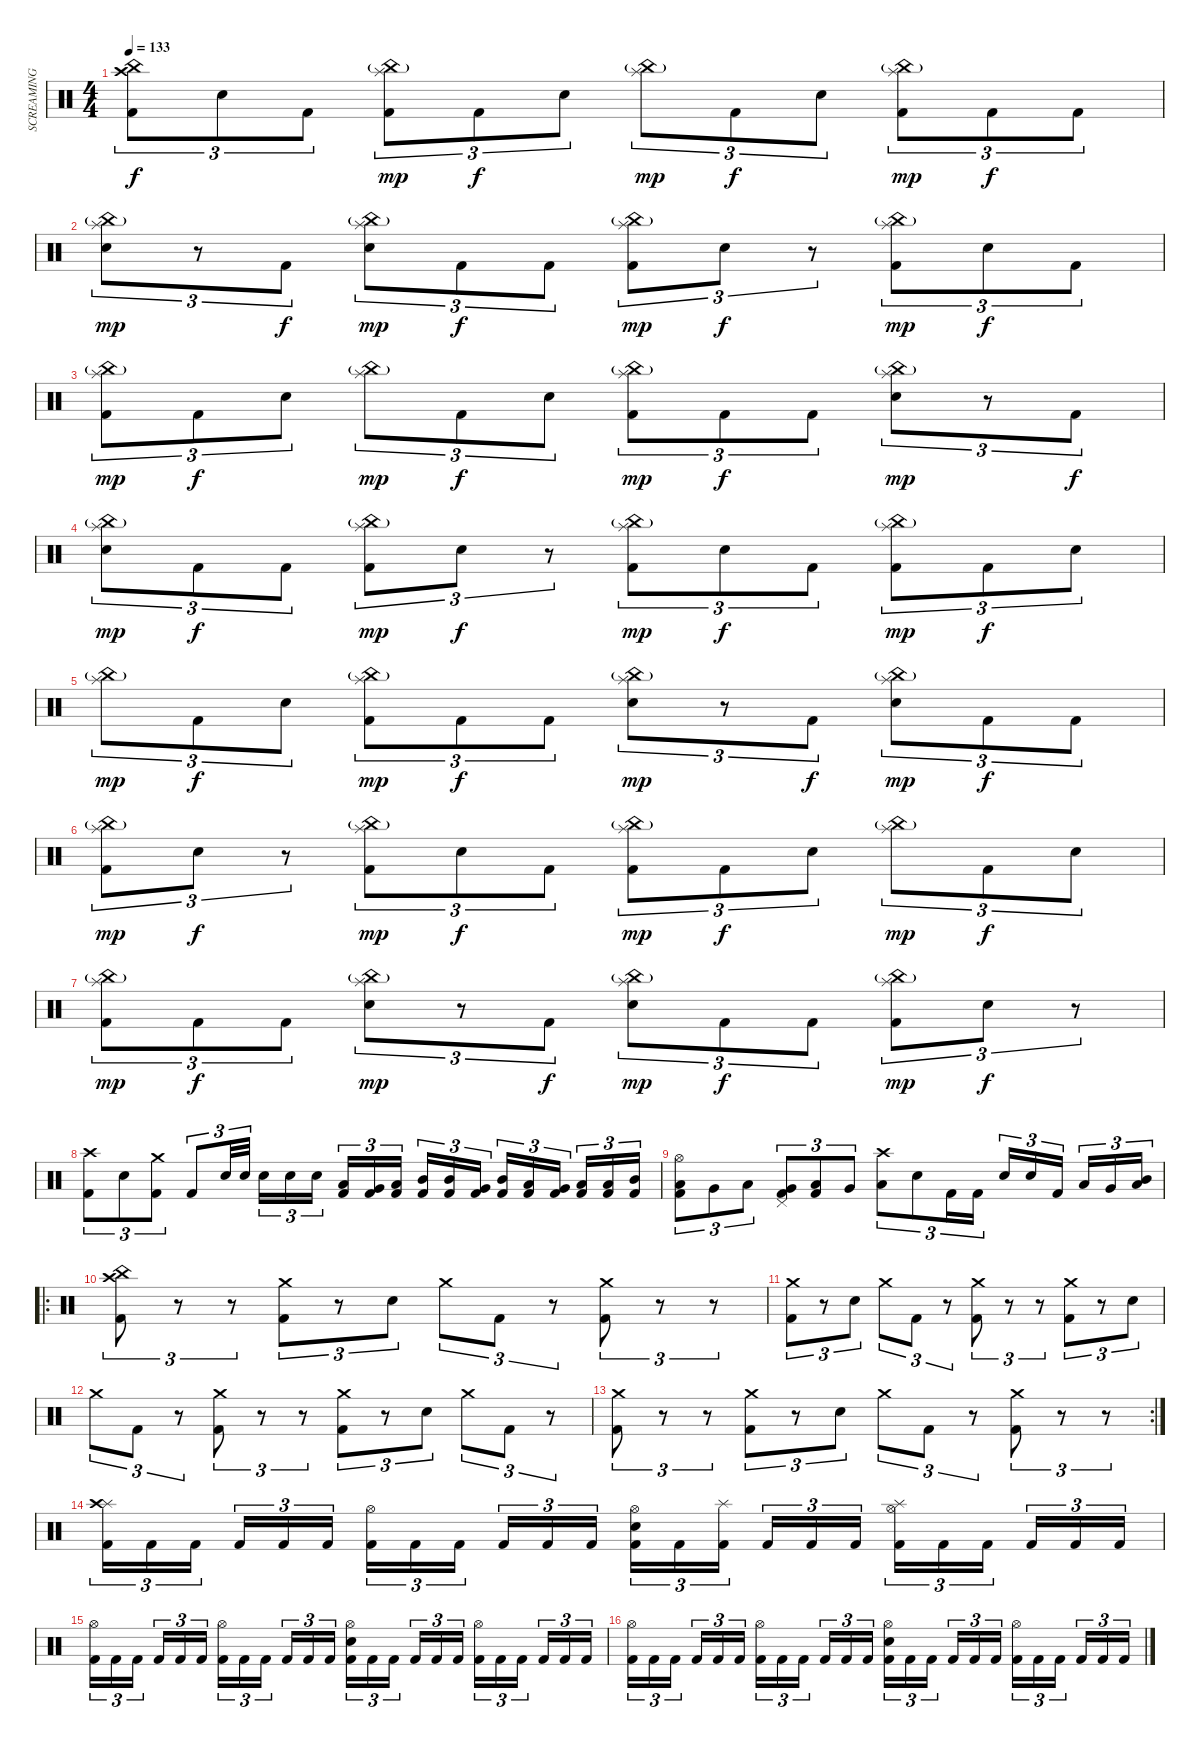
\track ("SCREAMING TOASTER OVEN" "SCREAMING ") {instrument percussion}
\staff {score}
\articulation defaults
\ts (4 4)
\tempo 133
\clef neutral
\ks c
("China (hit)" "Crash high (hit)" "Kick (hit) 2").8{tu (3 2) dy f} "Electric Snare (hit)".8{tu (3 2)} "Kick (hit) 2".8{tu (3 2)} ("China (hit)"{g} "Splash (hit)" "Kick (hit) 2").8{tu (3 2) dy mp} "Kick (hit) 2".8{tu (3 2) dy f} "Electric Snare (hit)".8{tu (3 2)} ("China (hit)"{g} "Splash (hit)").8{tu (3 2) dy mp} "Kick (hit) 2".8{tu (3 2) dy f} "Electric Snare (hit)".8{tu (3 2)} ("China (hit)"{g} "Splash (hit)" "Kick (hit) 2").8{tu (3 2) dy mp} "Kick (hit) 2".8{tu (3 2) dy f} "Kick (hit) 2".8{tu (3 2)} |
("China (hit)"{g} "Splash (hit)" "Electric Snare (hit)").8{tu (3 2) dy mp} r.8{tu (3 2)} "Kick (hit) 2".8{tu (3 2) dy f} ("China (hit)"{g} "Splash (hit)" "Electric Snare (hit)").8{tu (3 2) dy mp} "Kick (hit) 2".8{tu (3 2) dy f} "Kick (hit) 2".8{tu (3 2)} ("China (hit)"{g} "Splash (hit)" "Kick (hit) 2").8{tu (3 2) dy mp} "Electric Snare (hit)".8{tu (3 2) dy f} r.8{tu (3 2)} ("China (hit)"{g} "Splash (hit)" "Kick (hit) 2").8{tu (3 2) dy mp} "Electric Snare (hit)".8{tu (3 2) dy f} "Kick (hit) 2".8{tu (3 2)} |
("China (hit)"{g} "Splash (hit)" "Kick (hit) 2").8{tu (3 2) dy mp} "Kick (hit) 2".8{tu (3 2) dy f} "Electric Snare (hit)".8{tu (3 2)} ("China (hit)"{g} "Splash (hit)").8{tu (3 2) dy mp} "Kick (hit) 2".8{tu (3 2) dy f} "Electric Snare (hit)".8{tu (3 2)} ("China (hit)"{g} "Splash (hit)" "Kick (hit) 2").8{tu (3 2) dy mp} "Kick (hit) 2".8{tu (3 2) dy f} "Kick (hit) 2".8{tu (3 2)} ("China (hit)"{g} "Splash (hit)" "Electric Snare (hit)").8{tu (3 2) dy mp} r.8{tu (3 2)} "Kick (hit) 2".8{tu (3 2) dy f} |
("China (hit)"{g} "Splash (hit)" "Electric Snare (hit)").8{tu (3 2) dy mp} "Kick (hit) 2".8{tu (3 2) dy f} "Kick (hit) 2".8{tu (3 2)} ("China (hit)"{g} "Splash (hit)" "Kick (hit) 2").8{tu (3 2) dy mp} "Electric Snare (hit)".8{tu (3 2) dy f} r.8{tu (3 2)} ("China (hit)"{g} "Splash (hit)" "Kick (hit) 2").8{tu (3 2) dy mp} "Electric Snare (hit)".8{tu (3 2) dy f} "Kick (hit) 2".8{tu (3 2)} ("China (hit)"{g} "Splash (hit)" "Kick (hit) 2").8{tu (3 2) dy mp} "Kick (hit) 2".8{tu (3 2) dy f} "Electric Snare (hit)".8{tu (3 2)} |
("China (hit)"{g} "Splash (hit)").8{tu (3 2) dy mp} "Kick (hit) 2".8{tu (3 2) dy f} "Electric Snare (hit)".8{tu (3 2)} ("China (hit)"{g} "Splash (hit)" "Kick (hit) 2").8{tu (3 2) dy mp} "Kick (hit) 2".8{tu (3 2) dy f} "Kick (hit) 2".8{tu (3 2)} ("China (hit)"{g} "Splash (hit)" "Electric Snare (hit)").8{tu (3 2) dy mp} r.8{tu (3 2)} "Kick (hit) 2".8{tu (3 2) dy f} ("China (hit)"{g} "Splash (hit)" "Electric Snare (hit)").8{tu (3 2) dy mp} "Kick (hit) 2".8{tu (3 2) dy f} "Kick (hit) 2".8{tu (3 2)} |
("China (hit)"{g} "Splash (hit)" "Kick (hit) 2").8{tu (3 2) dy mp} "Electric Snare (hit)".8{tu (3 2) dy f} r.8{tu (3 2)} ("China (hit)"{g} "Splash (hit)" "Kick (hit) 2").8{tu (3 2) dy mp} "Electric Snare (hit)".8{tu (3 2) dy f} "Kick (hit) 2".8{tu (3 2)} ("China (hit)"{g} "Splash (hit)" "Kick (hit) 2").8{tu (3 2) dy mp} "Kick (hit) 2".8{tu (3 2) dy f} "Electric Snare (hit)".8{tu (3 2)} ("China (hit)"{g} "Splash (hit)").8{tu (3 2) dy mp} "Kick (hit) 2".8{tu (3 2) dy f} "Electric Snare (hit)".8{tu (3 2)} |
("China (hit)"{g} "Splash (hit)" "Kick (hit) 2").8{tu (3 2) dy mp} "Kick (hit) 2".8{tu (3 2) dy f} "Kick (hit) 2".8{tu (3 2)} ("China (hit)"{g} "Splash (hit)" "Electric Snare (hit)").8{tu (3 2) dy mp} r.8{tu (3 2)} "Kick (hit) 2".8{tu (3 2) dy f} ("China (hit)"{g} "Splash (hit)" "Electric Snare (hit)").8{tu (3 2) dy mp} "Kick (hit) 2".8{tu (3 2) dy f} "Kick (hit) 2".8{tu (3 2)} ("China (hit)"{g} "Splash (hit)" "Kick (hit) 2").8{tu (3 2) dy mp} "Electric Snare (hit)".8{tu (3 2) dy f} r.8{tu (3 2)} |
("Crash high (hit)" "Kick (hit) 2").8{tu (3 2)} "Electric Snare (hit)".8{tu (3 2)} ("Crash medium (hit)" "Kick (hit) 2").8{tu (3 2)} "Kick (hit) 2".8{tu (3 2)} "Electric Snare (hit)".32{tu (3 2)} "Electric Snare (hit)".32{tu (3 2) beam splitsecondary} "Electric Snare (hit)".16{tu (3 2)} "Electric Snare (hit)".16{tu (3 2)} "Electric Snare (hit)".16{tu (3 2)} ("Low Tom (hit)" "Kick (hit) 2").16{tu (3 2)} ("Very Low Tom (hit)" "Kick (hit) 2").16{tu (3 2)} ("Low Tom (hit)" "Kick (hit) 2").16{tu (3 2) beam splitsecondary} ("Mid Tom (hit)" "Kick (hit) 2").16{tu (3 2)} ("Mid Tom (hit)" "Kick (hit) 2").16{tu (3 2)} ("Very Low Tom (hit)" "Kick (hit) 2").16{tu (3 2)} ("Mid Tom (hit)" "Kick (hit) 2").16{tu (3 2)} ("Low Tom (hit)" "Kick (hit) 2").16{tu (3 2)} ("Very Low Tom (hit)" "Kick (hit) 2").16{tu (3 2) beam splitsecondary} ("Low Floor Tom (hit)" "Kick (hit) 2").16{tu (3 2)} ("Low Floor Tom (hit)" "Kick (hit) 2").16{tu (3 2)} ("Mid Tom (hit)" "Kick (hit) 2").16{tu (3 2)} |
("Hi-Hat (open)" "Low Floor Tom (hit)" "Kick (hit) 2").8{tu (3 2)} "Very Low Tom (hit)".8{tu (3 2)} "Low Floor Tom (hit)".8{tu (3 2)} ("Pedal Hi-Hat (hit)" "Very Low Tom (hit)" "Kick (hit) 2").8{tu (3 2)} ("Low Floor Tom (hit)" "Kick (hit) 2").8{tu (3 2)} "Very Low Tom (hit)".8{tu (3 2)} ("Crash high (hit)" "Low Floor Tom (hit)").8{tu (3 2)} "Electric Snare (hit)".8{tu (3 2)} "Kick (hit) 2".16{tu (3 2)} "Kick (hit) 2".16{tu (3 2)} "Electric Snare (hit)".16{tu (3 2)} "Electric Snare (hit)".16{tu (3 2)} "Kick (hit) 2".16{tu (3 2) beam splitsecondary} "Low Tom (hit)".16{tu (3 2)} "Very Low Tom (hit)".16{tu (3 2)} ("Mid Tom (hit)" "Low Floor Tom (hit)").16{tu (3 2)} |
\ro
("Crash high (hit)" "China (hit)" "Kick (hit) 2").8{tu (3 2)} r.8{tu (3 2)} r.8{tu (3 2)} ("Crash medium (hit)" "Kick (hit) 2").8{tu (3 2)} r.8{tu (3 2)} "Electric Snare (hit)".8{tu (3 2)} "Crash medium (hit)".8{tu (3 2)} "Kick (hit) 2".8{tu (3 2)} r.8{tu (3 2)} ("Crash medium (hit)" "Kick (hit) 2").8{tu (3 2)} r.8{tu (3 2)} r.8{tu (3 2)} |
("Crash medium (hit)" "Kick (hit) 2").8{tu (3 2)} r.8{tu (3 2)} "Electric Snare (hit)".8{tu (3 2)} "Crash medium (hit)".8{tu (3 2)} "Kick (hit) 2".8{tu (3 2)} r.8{tu (3 2)} ("Crash medium (hit)" "Kick (hit) 2").8{tu (3 2)} r.8{tu (3 2)} r.8{tu (3 2)} ("Crash medium (hit)" "Kick (hit) 2").8{tu (3 2)} r.8{tu (3 2)} "Electric Snare (hit)".8{tu (3 2)} |
"Crash medium (hit)".8{tu (3 2)} "Kick (hit) 2".8{tu (3 2)} r.8{tu (3 2)} ("Crash medium (hit)" "Kick (hit) 2").8{tu (3 2)} r.8{tu (3 2)} r.8{tu (3 2)} ("Crash medium (hit)" "Kick (hit) 2").8{tu (3 2)} r.8{tu (3 2)} "Electric Snare (hit)".8{tu (3 2)} "Crash medium (hit)".8{tu (3 2)} "Kick (hit) 2".8{tu (3 2)} r.8{tu (3 2)} |
\rc 2
("Crash medium (hit)" "Kick (hit) 2").8{tu (3 2)} r.8{tu (3 2)} r.8{tu (3 2)} ("Crash medium (hit)" "Kick (hit) 2").8{tu (3 2)} r.8{tu (3 2)} "Electric Snare (hit)".8{tu (3 2)} "Crash medium (hit)".8{tu (3 2)} "Kick (hit) 2".8{tu (3 2)} r.8{tu (3 2)} ("Crash medium (hit)" "Kick (hit) 2").8{tu (3 2)} r.8{tu (3 2)} r.8{tu (3 2)} |
("Splash (hit)" "Crash high (hit)" "Kick (hit) 2").16{tu (3 2)} "Kick (hit) 2".16{tu (3 2)} "Kick (hit) 2".16{tu (3 2) beam splitsecondary} "Kick (hit) 2".16{tu (3 2)} "Kick (hit) 2".16{tu (3 2)} "Kick (hit) 2".16{tu (3 2)} ("Hi-Hat (open)" "Kick (hit) 2").16{tu (3 2)} "Kick (hit) 2".16{tu (3 2)} "Kick (hit) 2".16{tu (3 2) beam splitsecondary} "Kick (hit) 2".16{tu (3 2)} "Kick (hit) 2".16{tu (3 2)} "Kick (hit) 2".16{tu (3 2)} ("Hi-Hat (open)" "Electric Snare (hit)" "Kick (hit) 2").16{tu (3 2)} "Kick (hit) 2".16{tu (3 2)} ("Splash (hit)" "Kick (hit) 2").16{tu (3 2) beam splitsecondary} "Kick (hit) 2".16{tu (3 2)} "Kick (hit) 2".16{tu (3 2)} "Kick (hit) 2".16{tu (3 2)} ("Hi-Hat (open)" "Splash (hit)" "Kick (hit) 2").16{tu (3 2)} "Kick (hit) 2".16{tu (3 2)} "Kick (hit) 2".16{tu (3 2) beam splitsecondary} "Kick (hit) 2".16{tu (3 2)} "Kick (hit) 2".16{tu (3 2)} "Kick (hit) 2".16{tu (3 2)} |
("Hi-Hat (open)" "Kick (hit) 2").16{tu (3 2)} "Kick (hit) 2".16{tu (3 2)} "Kick (hit) 2".16{tu (3 2) beam splitsecondary} "Kick (hit) 2".16{tu (3 2)} "Kick (hit) 2".16{tu (3 2)} "Kick (hit) 2".16{tu (3 2)} ("Hi-Hat (open)" "Kick (hit) 2").16{tu (3 2)} "Kick (hit) 2".16{tu (3 2)} "Kick (hit) 2".16{tu (3 2) beam splitsecondary} "Kick (hit) 2".16{tu (3 2)} "Kick (hit) 2".16{tu (3 2)} "Kick (hit) 2".16{tu (3 2)} ("Hi-Hat (open)" "Electric Snare (hit)" "Kick (hit) 2").16{tu (3 2)} "Kick (hit) 2".16{tu (3 2)} "Kick (hit) 2".16{tu (3 2) beam splitsecondary} "Kick (hit) 2".16{tu (3 2)} "Kick (hit) 2".16{tu (3 2)} "Kick (hit) 2".16{tu (3 2)} ("Hi-Hat (open)" "Kick (hit) 2").16{tu (3 2)} "Kick (hit) 2".16{tu (3 2)} "Kick (hit) 2".16{tu (3 2) beam splitsecondary} "Kick (hit) 2".16{tu (3 2)} "Kick (hit) 2".16{tu (3 2)} "Kick (hit) 2".16{tu (3 2)} |
("Hi-Hat (open)" "Kick (hit) 2").16{tu (3 2)} "Kick (hit) 2".16{tu (3 2)} "Kick (hit) 2".16{tu (3 2) beam splitsecondary} "Kick (hit) 2".16{tu (3 2)} "Kick (hit) 2".16{tu (3 2)} "Kick (hit) 2".16{tu (3 2)} ("Hi-Hat (open)" "Kick (hit) 2").16{tu (3 2)} "Kick (hit) 2".16{tu (3 2)} "Kick (hit) 2".16{tu (3 2) beam splitsecondary} "Kick (hit) 2".16{tu (3 2)} "Kick (hit) 2".16{tu (3 2)} "Kick (hit) 2".16{tu (3 2)} ("Hi-Hat (open)" "Electric Snare (hit)" "Kick (hit) 2").16{tu (3 2)} "Kick (hit) 2".16{tu (3 2)} "Kick (hit) 2".16{tu (3 2) beam splitsecondary} "Kick (hit) 2".16{tu (3 2)} "Kick (hit) 2".16{tu (3 2)} "Kick (hit) 2".16{tu (3 2)} ("Hi-Hat (open)" "Kick (hit) 2").16{tu (3 2)} "Kick (hit) 2".16{tu (3 2)} "Kick (hit) 2".16{tu (3 2) beam splitsecondary} "Kick (hit) 2".16{tu (3 2)} "Kick (hit) 2".16{tu (3 2)} "Kick (hit) 2".16{tu (3 2)}
